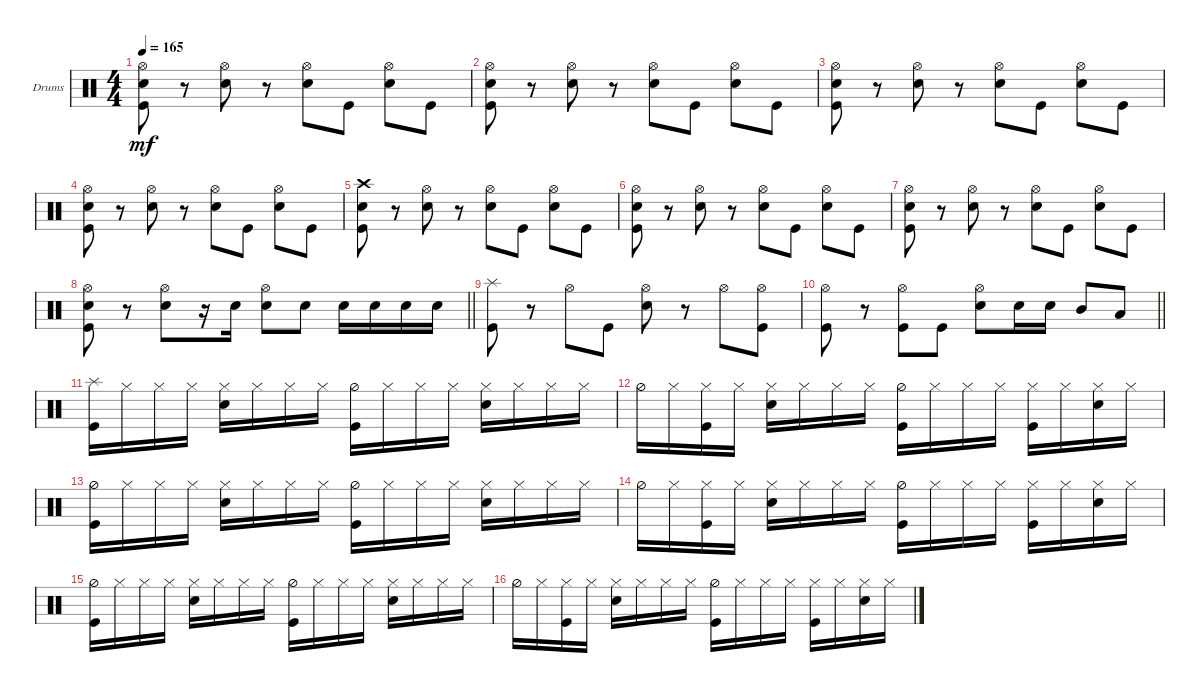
\defaultSystemsLayout 4
\bracketExtendMode groupsimilarinstruments
\firstSystemTrackNameOrientation horizontal
\otherSystemsTrackNameOrientation horizontal
\track ("Drumkit" "Drums") {instrument percussion}
\staff {score}
\articulation defaults
\ts (4 4)
\tempo 165
\clef neutral
\ks c
("Kick (hit)" "Snare (hit) 2" "Hi-Hat (open)").8{dy mf} r.8 ("Snare (hit) 2" "Hi-Hat (open)").8 r.8 ("Snare (hit) 2" "Hi-Hat (open)").8 "Kick (hit)".8 ("Snare (hit) 2" "Hi-Hat (open)").8 "Kick (hit)".8 |
("Kick (hit)" "Snare (hit) 2" "Hi-Hat (open)").8 r.8 ("Snare (hit) 2" "Hi-Hat (open)").8 r.8 ("Snare (hit) 2" "Hi-Hat (open)").8 "Kick (hit)".8 ("Snare (hit) 2" "Hi-Hat (open)").8 "Kick (hit)".8 |
("Kick (hit)" "Snare (hit) 2" "Hi-Hat (open)").8 r.8 ("Snare (hit) 2" "Hi-Hat (open)").8 r.8 ("Snare (hit) 2" "Hi-Hat (open)").8 "Kick (hit)".8 ("Snare (hit) 2" "Hi-Hat (open)").8 "Kick (hit)".8 |
("Kick (hit)" "Snare (hit) 2" "Hi-Hat (open)").8 r.8 ("Snare (hit) 2" "Hi-Hat (open)").8 r.8 ("Snare (hit) 2" "Hi-Hat (open)").8 "Kick (hit)".8 ("Snare (hit) 2" "Hi-Hat (open)").8 "Kick (hit)".8 |
("Kick (hit)" "Snare (hit) 2" "Crash high (hit)").8 r.8 ("Snare (hit) 2" "Hi-Hat (open)").8 r.8 ("Snare (hit) 2" "Hi-Hat (open)").8 "Kick (hit)".8 ("Snare (hit) 2" "Hi-Hat (open)").8 "Kick (hit)".8 |
("Kick (hit)" "Snare (hit) 2" "Hi-Hat (open)").8 r.8 ("Snare (hit) 2" "Hi-Hat (open)").8 r.8 ("Snare (hit) 2" "Hi-Hat (open)").8 "Kick (hit)".8 ("Snare (hit) 2" "Hi-Hat (open)").8 "Kick (hit)".8 |
("Kick (hit)" "Snare (hit) 2" "Hi-Hat (open)").8 r.8 ("Snare (hit) 2" "Hi-Hat (open)").8 r.8 ("Snare (hit) 2" "Hi-Hat (open)").8 "Kick (hit)".8 ("Snare (hit) 2" "Hi-Hat (open)").8 "Kick (hit)".8 |
\barLineRight lightlight
("Kick (hit)" "Snare (hit) 2" "Hi-Hat (open)").8 r.8 ("Snare (hit) 2" "Hi-Hat (open)").8 r.16 "Snare (hit) 2".16 ("Snare (hit) 2" "Hi-Hat (open)").8 "Snare (hit) 2".8 "Snare (hit) 2".16 "Snare (hit) 2".16 "Snare (hit) 2".16 "Snare (hit) 2".16 |
("Kick (hit)" "Splash (hit)").8 r.8 "Hi-Hat (open)".8 "Kick (hit)".8 ("Snare (hit) 2" "Hi-Hat (open)").8 r.8 "Hi-Hat (open)".8 ("Kick (hit)" "Hi-Hat (open)").8 |
\barLineRight lightlight
("Kick (hit)" "Hi-Hat (open)").8 r.8 ("Kick (hit)" "Hi-Hat (open)").8 "Kick (hit)".8 ("Snare (hit) 2" "Hi-Hat (open)").8 "Snare (hit) 2".16 "Snare (hit) 2".16 "Mid Tom (hit)".8 "Low Tom (hit)".8 |
("Kick (hit)" "Splash (hit)").16 "Hi-Hat (closed)".16 "Hi-Hat (closed)".16 "Hi-Hat (closed)".16 ("Hi-Hat (closed)" "Snare (hit) 2").16 "Hi-Hat (closed)".16 "Hi-Hat (closed)".16 "Hi-Hat (closed)".16 ("Hi-Hat (half)" "Kick (hit)").16 "Hi-Hat (closed)".16 "Hi-Hat (closed)".16 "Hi-Hat (closed)".16 ("Hi-Hat (closed)" "Snare (hit) 2").16 "Hi-Hat (closed)".16 "Hi-Hat (closed)".16 "Hi-Hat (closed)".16 |
"Hi-Hat (half)".16 "Hi-Hat (closed)".16 ("Hi-Hat (closed)" "Kick (hit)").16 "Hi-Hat (closed)".16 ("Hi-Hat (closed)" "Snare (hit) 2").16 "Hi-Hat (closed)".16 "Hi-Hat (closed)".16 "Hi-Hat (closed)".16 ("Hi-Hat (half)" "Kick (hit)").16 "Hi-Hat (closed)".16 "Hi-Hat (closed)".16 "Hi-Hat (closed)".16 ("Hi-Hat (closed)" "Kick (hit)").16 "Hi-Hat (closed)".16 ("Hi-Hat (closed)" "Snare (hit) 2").16 "Hi-Hat (closed)".16 |
("Kick (hit)" "Hi-Hat (half)").16 "Hi-Hat (closed)".16 "Hi-Hat (closed)".16 "Hi-Hat (closed)".16 ("Hi-Hat (closed)" "Snare (hit) 2").16 "Hi-Hat (closed)".16 "Hi-Hat (closed)".16 "Hi-Hat (closed)".16 ("Hi-Hat (half)" "Kick (hit)").16 "Hi-Hat (closed)".16 "Hi-Hat (closed)".16 "Hi-Hat (closed)".16 ("Hi-Hat (closed)" "Snare (hit) 2").16 "Hi-Hat (closed)".16 "Hi-Hat (closed)".16 "Hi-Hat (closed)".16 |
"Hi-Hat (half)".16 "Hi-Hat (closed)".16 ("Hi-Hat (closed)" "Kick (hit)").16 "Hi-Hat (closed)".16 ("Hi-Hat (closed)" "Snare (hit) 2").16 "Hi-Hat (closed)".16 "Hi-Hat (closed)".16 "Hi-Hat (closed)".16 ("Hi-Hat (half)" "Kick (hit)").16 "Hi-Hat (closed)".16 "Hi-Hat (closed)".16 "Hi-Hat (closed)".16 ("Hi-Hat (closed)" "Kick (hit)").16 "Hi-Hat (closed)".16 ("Hi-Hat (closed)" "Snare (hit) 2").16 "Hi-Hat (closed)".16 |
("Kick (hit)" "Hi-Hat (half)").16 "Hi-Hat (closed)".16 "Hi-Hat (closed)".16 "Hi-Hat (closed)".16 ("Hi-Hat (closed)" "Snare (hit) 2").16 "Hi-Hat (closed)".16 "Hi-Hat (closed)".16 "Hi-Hat (closed)".16 ("Hi-Hat (half)" "Kick (hit)").16 "Hi-Hat (closed)".16 "Hi-Hat (closed)".16 "Hi-Hat (closed)".16 ("Hi-Hat (closed)" "Snare (hit) 2").16 "Hi-Hat (closed)".16 "Hi-Hat (closed)".16 "Hi-Hat (closed)".16 |
"Hi-Hat (half)".16 "Hi-Hat (closed)".16 ("Hi-Hat (closed)" "Kick (hit)").16 "Hi-Hat (closed)".16 ("Hi-Hat (closed)" "Snare (hit) 2").16 "Hi-Hat (closed)".16 "Hi-Hat (closed)".16 "Hi-Hat (closed)".16 ("Hi-Hat (half)" "Kick (hit)").16 "Hi-Hat (closed)".16 "Hi-Hat (closed)".16 "Hi-Hat (closed)".16 ("Hi-Hat (closed)" "Kick (hit)").16 "Hi-Hat (closed)".16 ("Hi-Hat (closed)" "Snare (hit) 2").16 "Hi-Hat (closed)".16
